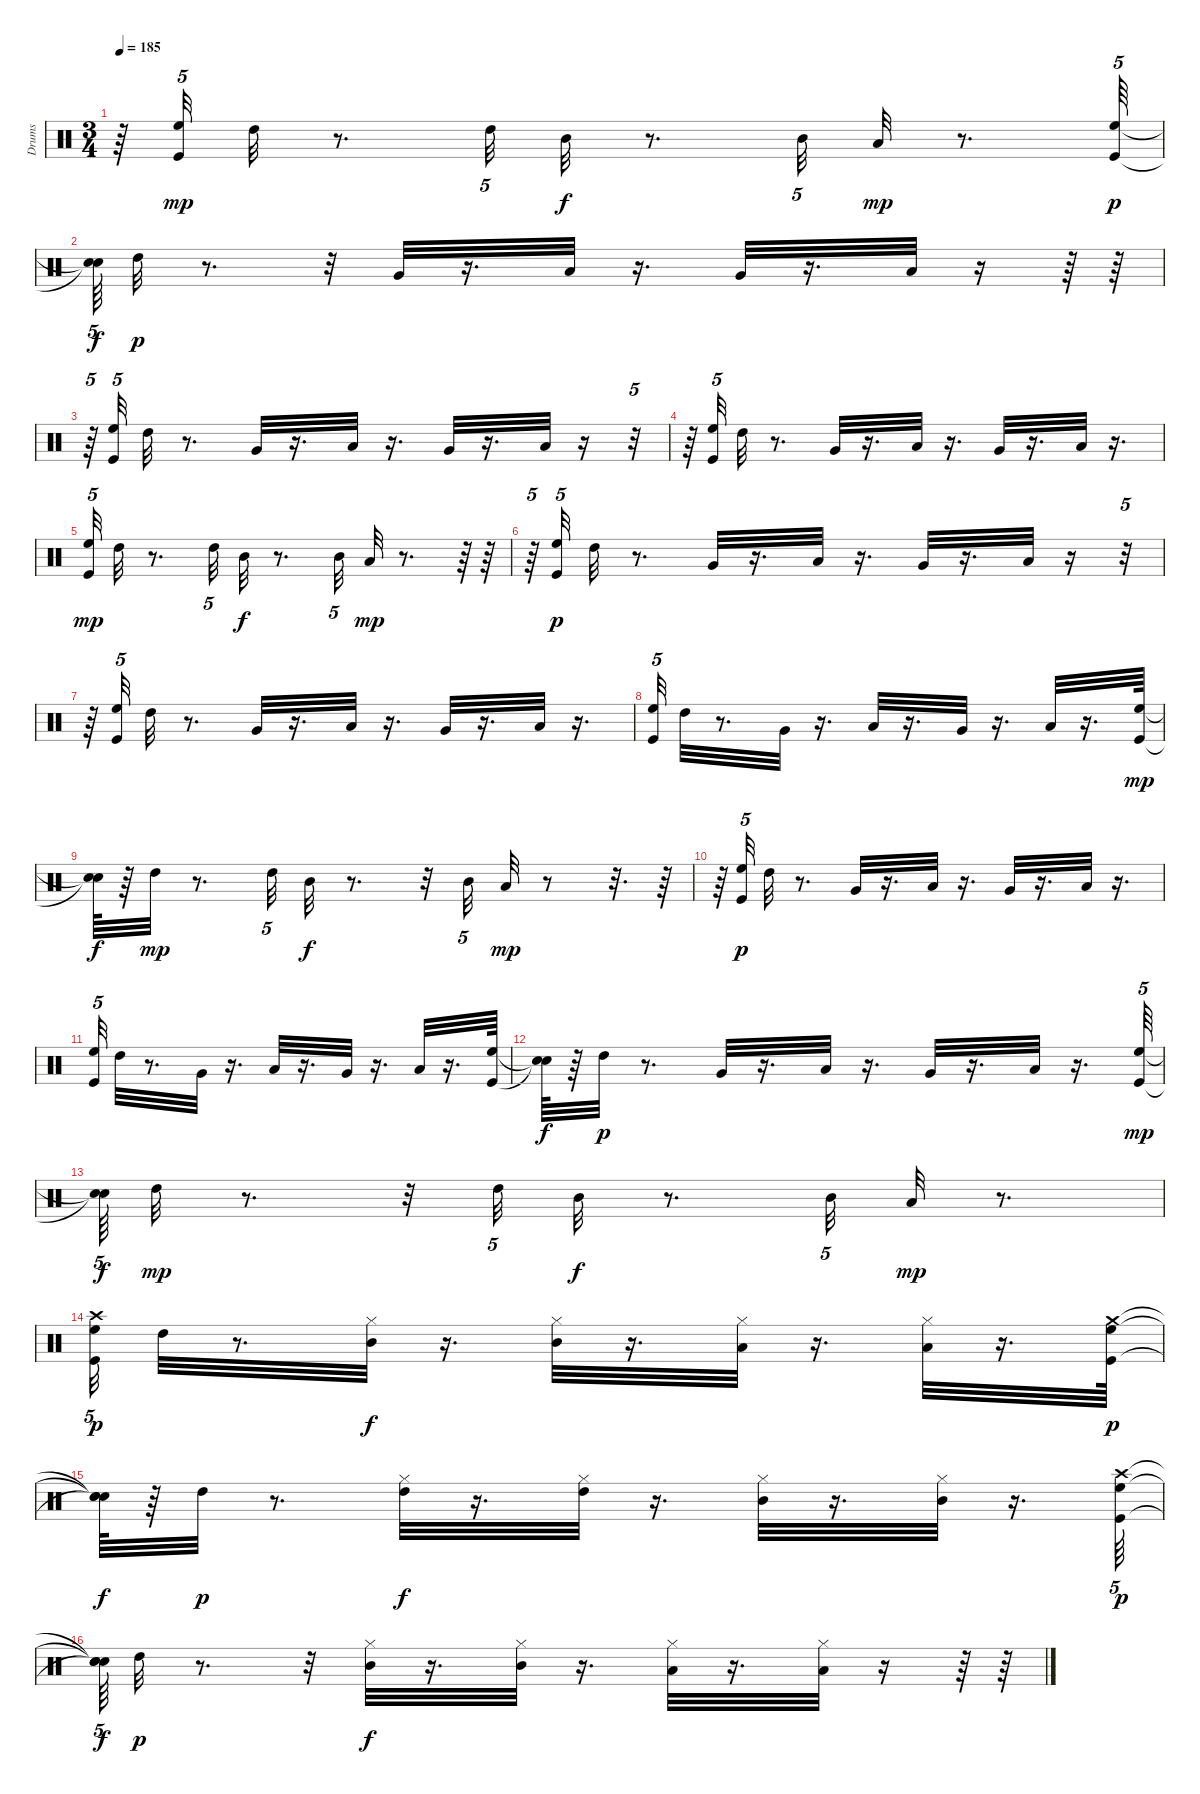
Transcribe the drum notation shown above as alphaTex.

\track ("Drums" "Drums") {instrument percussion}
\staff {score}
\articulation defaults
\ts (3 4)
\tempo 185
\clef neutral
\ks c
r.64{dy p} ("High Floor Tom (hit)" "Kick (hit)").32{tu (5 4) dy mp} "High Tom (hit)".32 r.8{d} "High Tom (hit)".32{tu (5 4)} "Mid Tom (hit)".32{dy f} r.8{d} "Mid Tom (hit)".32{tu (5 4)} "Low Tom (hit)".32{dy mp} r.8{d} ("High Floor Tom (hit)" "Kick (hit)").64{tu (5 4) dy p} |
("Snare (hit)"{t} "Snare (hit)"{t}).64{tu (5 4) dy f} "High Tom (hit)".32{dy p} r.8{d} r.32 "Very Low Tom (hit)".32 r.16{d} "Low Floor Tom (hit)".32 r.16{d} "Very Low Tom (hit)".32 r.16{d} "Low Floor Tom (hit)".32 r.16 r.64 r.64 |
r.64{tu (5 4)} ("High Floor Tom (hit)" "Kick (hit)").32{tu (5 4)} "High Tom (hit)".32 r.8{d} "Very Low Tom (hit)".32 r.16{d} "Low Floor Tom (hit)".32 r.16{d} "Very Low Tom (hit)".32 r.16{d} "Low Floor Tom (hit)".32 r.16 r.32{tu (5 4)} |
r.64 ("High Floor Tom (hit)" "Kick (hit)").32{tu (5 4)} "High Tom (hit)".32 r.8{d} "Very Low Tom (hit)".32 r.16{d} "Low Floor Tom (hit)".32 r.16{d} "Very Low Tom (hit)".32 r.16{d} "Low Floor Tom (hit)".32 r.16{d} |
("High Floor Tom (hit)" "Kick (hit)").32{tu (5 4) dy mp} "High Tom (hit)".32 r.8{d} "High Tom (hit)".32{tu (5 4)} "Mid Tom (hit)".32{dy f} r.8{d} "Mid Tom (hit)".32{tu (5 4)} "Low Tom (hit)".32{dy mp} r.8{d} r.64 r.64 |
r.64{tu (5 4)} ("High Floor Tom (hit)" "Kick (hit)").32{tu (5 4) dy p} "High Tom (hit)".32 r.8{d} "Very Low Tom (hit)".32 r.16{d} "Low Floor Tom (hit)".32 r.16{d} "Very Low Tom (hit)".32 r.16{d} "Low Floor Tom (hit)".32 r.16 r.32{tu (5 4)} |
r.64 ("High Floor Tom (hit)" "Kick (hit)").32{tu (5 4)} "High Tom (hit)".32 r.8{d} "Very Low Tom (hit)".32 r.16{d} "Low Floor Tom (hit)".32 r.16{d} "Very Low Tom (hit)".32 r.16{d} "Low Floor Tom (hit)".32 r.16{d} |
("High Floor Tom (hit)" "Kick (hit)").32{tu (5 4)} "High Tom (hit)".32 r.8{d} "Very Low Tom (hit)".32 r.16{d} "Low Floor Tom (hit)".32 r.16{d} "Very Low Tom (hit)".32 r.16{d} "Low Floor Tom (hit)".32 r.16{d} ("High Floor Tom (hit)" "Kick (hit)").64{dy mp} |
("Snare (hit)"{t} "Snare (hit)"{t}).64{dy f} r.64 "High Tom (hit)".32{dy mp} r.8{d} "High Tom (hit)".32{tu (5 4)} "Mid Tom (hit)".32{dy f} r.8{d} r.32 "Mid Tom (hit)".32{tu (5 4)} "Low Tom (hit)".32{dy mp} r.8 r.32{d} r.64 |
r.64 ("High Floor Tom (hit)" "Kick (hit)").32{tu (5 4) dy p} "High Tom (hit)".32 r.8{d} "Very Low Tom (hit)".32 r.16{d} "Low Floor Tom (hit)".32 r.16{d} "Very Low Tom (hit)".32 r.16{d} "Low Floor Tom (hit)".32 r.16{d} |
("High Floor Tom (hit)" "Kick (hit)").32{tu (5 4)} "High Tom (hit)".32 r.8{d} "Very Low Tom (hit)".32 r.16{d} "Low Floor Tom (hit)".32 r.16{d} "Very Low Tom (hit)".32 r.16{d} "Low Floor Tom (hit)".32 r.16{d} ("High Floor Tom (hit)" "Kick (hit)").64 |
("Snare (hit)"{t} "Snare (hit)"{t}).64{dy f} r.64 "High Tom (hit)".32{dy p} r.8{d} "Very Low Tom (hit)".32 r.16{d} "Low Floor Tom (hit)".32 r.16{d} "Very Low Tom (hit)".32 r.16{d} "Low Floor Tom (hit)".32 r.16{d} ("High Floor Tom (hit)" "Kick (hit)").64{tu (5 4) dy mp} |
("Snare (hit)"{t} "Snare (hit)"{t}).64{tu (5 4) dy f} "High Tom (hit)".32{dy mp} r.8{d} r.32 "High Tom (hit)".32{tu (5 4)} "Mid Tom (hit)".32{dy f} r.8{d} "Mid Tom (hit)".32{tu (5 4)} "Low Tom (hit)".32{dy mp} r.8{d} |
("Crash high (hit)" "Kick (hit)" "High Floor Tom (hit)").32{tu (5 4) dy p} "High Tom (hit)".32 r.8{d} ("Hi-Hat (closed)" "Mid Tom (hit)").32{dy f} r.16{d} ("Hi-Hat (closed)" "Mid Tom (hit)").32 r.16{d} ("Low Tom (hit)" "Hi-Hat (closed)").32 r.16{d} ("Hi-Hat (closed)" "Low Tom (hit)").32 r.16{d} ("High Floor Tom (hit)" "Kick (hit)" "Crash medium (hit)").64{dy p} |
("Snare (hit)"{t} "Snare (hit)"{t} "Snare (hit)"{t}).64{dy f} r.64 "High Tom (hit)".32{dy p} r.8{d} ("High Tom (hit)" "Hi-Hat (closed)").32{dy f} r.16{d} ("High Tom (hit)" "Hi-Hat (closed)").32 r.16{d} ("Mid Tom (hit)" "Hi-Hat (closed)").32 r.16{d} ("Hi-Hat (closed)" "Mid Tom (hit)").32 r.16{d} ("Kick (hit)" "Crash high (hit)" "High Floor Tom (hit)").64{tu (5 4) dy p} |
("Snare (hit)"{t} "Snare (hit)"{t} "Snare (hit)"{t}).64{tu (5 4) dy f} "High Tom (hit)".32{dy p} r.8{d} r.32 ("Hi-Hat (closed)" "Mid Tom (hit)").32{dy f} r.16{d} ("Mid Tom (hit)" "Hi-Hat (closed)").32 r.16{d} ("Low Tom (hit)" "Hi-Hat (closed)").32 r.16{d} ("Hi-Hat (closed)" "Low Tom (hit)").32 r.16 r.64 r.64
